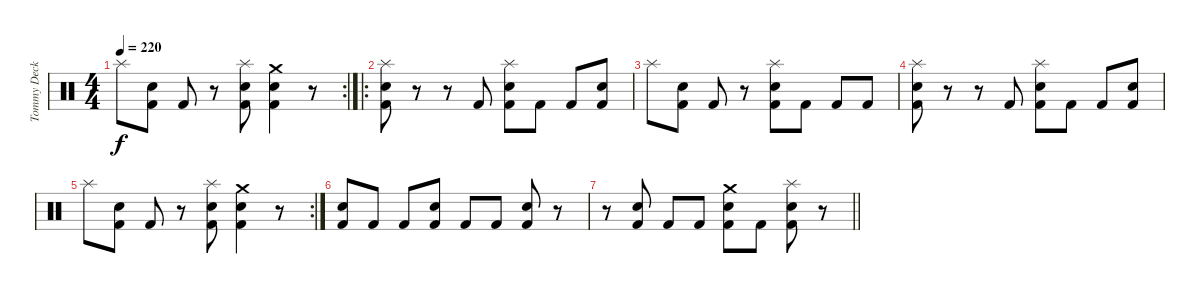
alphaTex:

\track ("Tommy Decker" "Tommy Deck") {instrument percussion}
\staff {score}
\articulation defaults
\rc 2
\ts (4 4)
\tempo 220
\clef neutral
\ks c "Splash (hit)".8{dy f}
("Electric Snare (hit)" "Kick (hit) 2").8 "Kick (hit) 2".8 r.8 ("Splash (hit)" "Electric Snare (hit)" "Kick (hit) 2").8 ("Crash medium (hit)" "Electric Snare (hit)" "Kick (hit) 2").4 r.8 |
\ro
("Splash (hit)" "Electric Snare (hit)" "Kick (hit) 2").8 r.8 r.8 "Kick (hit) 2".8 ("Splash (hit)" "Electric Snare (hit)" "Kick (hit) 2").8 "Kick (hit) 2".8 "Kick (hit) 2".8 ("Electric Snare (hit)" "Kick (hit) 2").8 |
"Splash (hit)".8 ("Electric Snare (hit)" "Kick (hit) 2").8 "Kick (hit) 2".8 r.8 ("Splash (hit)" "Electric Snare (hit)" "Kick (hit) 2").8 "Kick (hit) 2".8 "Kick (hit) 2".8 "Kick (hit) 2".8 |
("Splash (hit)" "Electric Snare (hit)" "Kick (hit) 2").8 r.8 r.8 "Kick (hit) 2".8 ("Splash (hit)" "Electric Snare (hit)" "Kick (hit) 2").8 "Kick (hit) 2".8 "Kick (hit) 2".8 ("Electric Snare (hit)" "Kick (hit) 2").8 |
\rc 2 "Splash (hit)".8
("Electric Snare (hit)" "Kick (hit) 2").8 "Kick (hit) 2".8 r.8 ("Splash (hit)" "Electric Snare (hit)" "Kick (hit) 2").8 ("Crash medium (hit)" "Electric Snare (hit)" "Kick (hit) 2").4 r.8 |
("Electric Snare (hit)" "Kick (hit) 2").8 "Kick (hit) 2".8 "Kick (hit) 2".8 ("Electric Snare (hit)" "Kick (hit) 2").8 "Kick (hit) 2".8 "Kick (hit) 2".8 ("Electric Snare (hit)" "Kick (hit) 2").8 r.8 |
\barLineRight lightlight
r.8 ("Electric Snare (hit)" "Kick (hit) 2").8 "Kick (hit) 2".8 "Kick (hit) 2".8 ("Crash medium (hit)" "Electric Snare (hit)" "Kick (hit) 2").8 "Kick (hit) 2".8 ("Splash (hit)" "Electric Snare (hit)" "Kick (hit) 2").8 r.8
